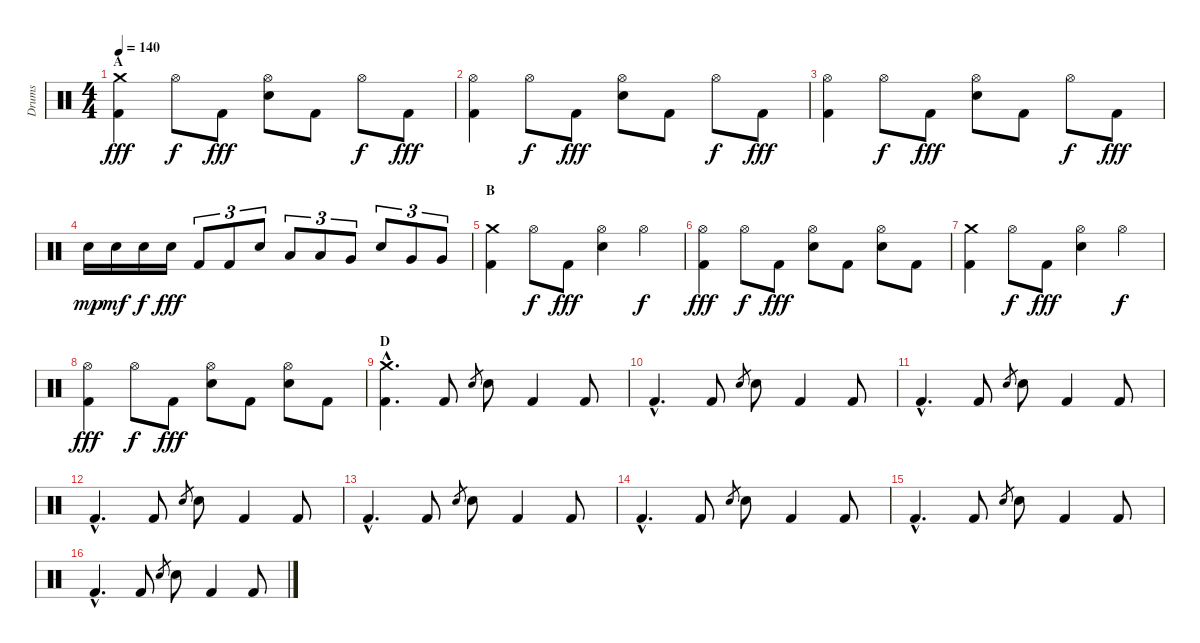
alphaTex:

\track ("Drums" "Drums") {instrument percussion}
\staff {score}
\articulation defaults
\ts (4 4)
\section ("" "A")
\tempo 140
\clef neutral
\ks c
("Crash medium (hit)" "Kick (hit) 2").4{dy fff} "Hi-Hat (open)".8{dy f} "Kick (hit) 2".8{dy fff} ("Hi-Hat (open)" "Electric Snare (hit)").8 "Kick (hit) 2".8 "Hi-Hat (open)".8{dy f} "Kick (hit) 2".8{dy fff} |
("Hi-Hat (open)" "Kick (hit) 2").4 "Hi-Hat (open)".8{dy f} "Kick (hit) 2".8{dy fff} ("Hi-Hat (open)" "Electric Snare (hit)").8 "Kick (hit) 2".8 "Hi-Hat (open)".8{dy f} "Kick (hit) 2".8{dy fff} |
("Hi-Hat (open)" "Kick (hit) 2").4 "Hi-Hat (open)".8{dy f} "Kick (hit) 2".8{dy fff} ("Hi-Hat (open)" "Electric Snare (hit)").8 "Kick (hit) 2".8 "Hi-Hat (open)".8{dy f} "Kick (hit) 2".8{dy fff} |
"Electric Snare (hit)".16{dy mp} "Electric Snare (hit)".16{dy mf} "Electric Snare (hit)".16{dy f} "Electric Snare (hit)".16{dy fff} "Kick (hit) 2".8{tu (3 2)} "Kick (hit) 2".8{tu (3 2)} "Electric Snare (hit)".8{tu (3 2)} "Low Tom (hit)".8{tu (3 2)} "Low Tom (hit)".8{tu (3 2)} "Very Low Tom (hit)".8{tu (3 2)} "Electric Snare (hit)".8{tu (3 2)} "Very Low Tom (hit)".8{tu (3 2)} "Very Low Tom (hit)".8{tu (3 2)} |
\section ("" "B")
("Crash medium (hit)" "Kick (hit) 2").4 "Hi-Hat (open)".8{dy f} "Kick (hit) 2".8{dy fff} ("Hi-Hat (open)" "Electric Snare (hit)").4 "Hi-Hat (open)".4{dy f} |
("Hi-Hat (open)" "Kick (hit) 2").4{dy fff} "Hi-Hat (open)".8{dy f} "Kick (hit) 2".8{dy fff} ("Hi-Hat (open)" "Electric Snare (hit)").8 "Kick (hit) 2".8 ("Hi-Hat (open)" "Electric Snare (hit)").8 "Kick (hit) 2".8 |
("Crash medium (hit)" "Kick (hit) 2").4 "Hi-Hat (open)".8{dy f} "Kick (hit) 2".8{dy fff} ("Hi-Hat (open)" "Electric Snare (hit)").4 "Hi-Hat (open)".4{dy f} |
("Hi-Hat (open)" "Kick (hit) 2").4{dy fff} "Hi-Hat (open)".8{dy f} "Kick (hit) 2".8{dy fff} ("Hi-Hat (open)" "Electric Snare (hit)").8 "Kick (hit) 2".8 ("Hi-Hat (open)" "Electric Snare (hit)").8 "Kick (hit) 2".8 |
\section ("" "D")
("Crash medium (hit)"{hac} "Kick (hit) 2"{hac}).4{d} "Kick (hit) 2".8 "Electric Snare (hit)".8{gr} "Electric Snare (hit)".8 "Kick (hit) 2".4 "Kick (hit) 2".8 |
"Kick (hit) 2"{hac}.4{d} "Kick (hit) 2".8 "Electric Snare (hit)".8{gr} "Electric Snare (hit)".8 "Kick (hit) 2".4 "Kick (hit) 2".8 |
"Kick (hit) 2"{hac}.4{d} "Kick (hit) 2".8 "Electric Snare (hit)".8{gr} "Electric Snare (hit)".8 "Kick (hit) 2".4 "Kick (hit) 2".8 |
"Kick (hit) 2"{hac}.4{d} "Kick (hit) 2".8 "Electric Snare (hit)".8{gr} "Electric Snare (hit)".8 "Kick (hit) 2".4 "Kick (hit) 2".8 |
"Kick (hit) 2"{hac}.4{d} "Kick (hit) 2".8 "Electric Snare (hit)".8{gr} "Electric Snare (hit)".8 "Kick (hit) 2".4 "Kick (hit) 2".8 |
"Kick (hit) 2"{hac}.4{d} "Kick (hit) 2".8 "Electric Snare (hit)".8{gr} "Electric Snare (hit)".8 "Kick (hit) 2".4 "Kick (hit) 2".8 |
"Kick (hit) 2"{hac}.4{d} "Kick (hit) 2".8 "Electric Snare (hit)".8{gr} "Electric Snare (hit)".8 "Kick (hit) 2".4 "Kick (hit) 2".8 |
"Kick (hit) 2"{hac}.4{d} "Kick (hit) 2".8 "Electric Snare (hit)".8{gr} "Electric Snare (hit)".8 "Kick (hit) 2".4 "Kick (hit) 2".8
